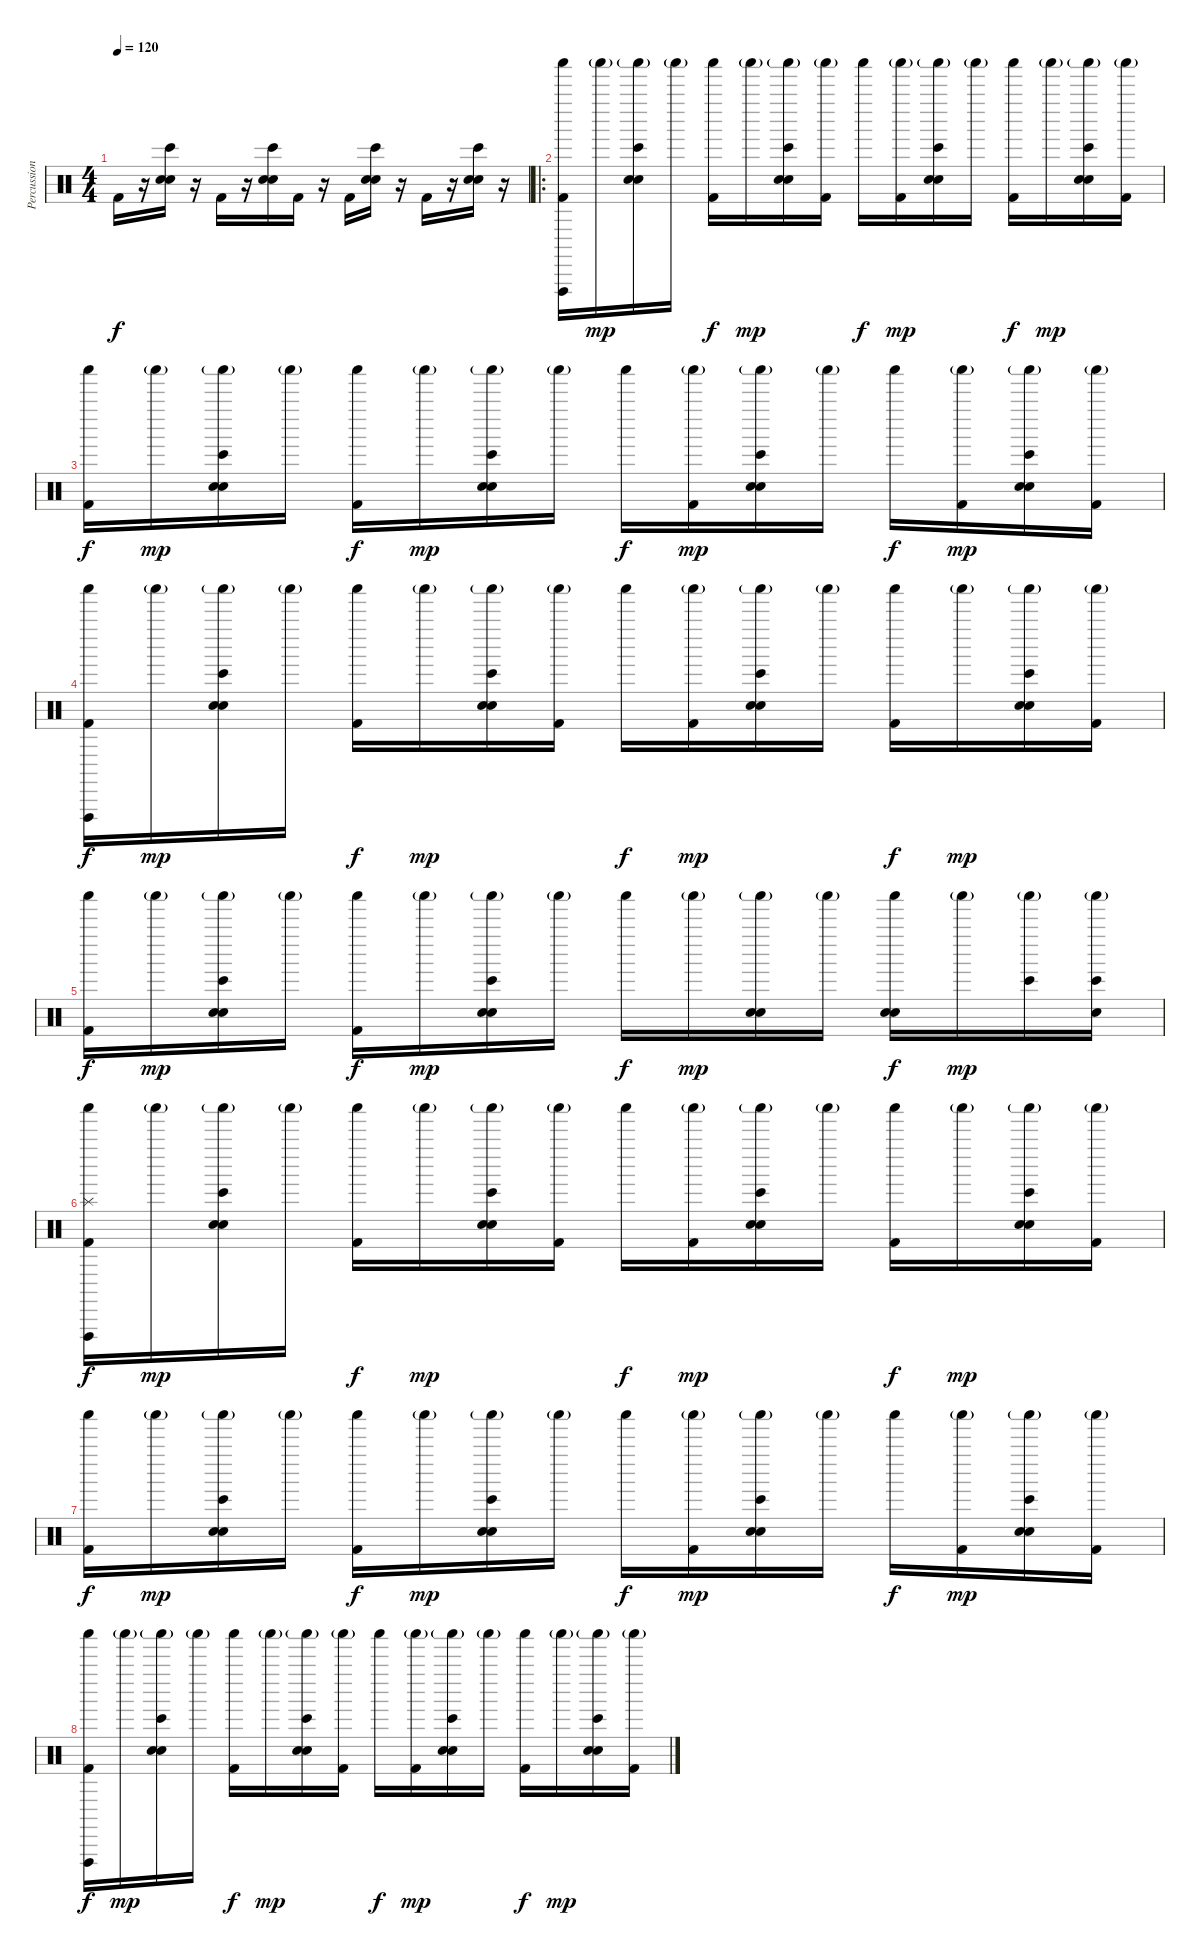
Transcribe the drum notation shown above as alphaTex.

\track ("Percussion" "Percussion") {instrument percussion}
\staff {score}
\articulation defaults
\ts (4 4)
\tempo 120
\clef neutral
\ks c "Kick (hit) 2".16{dy f}
r.16 ("Electric Snare (hit)" "Snare (hit) 2" "Bongo High (hit)").16 r.16 "Kick (hit) 2".16 r.16 ("Electric Snare (hit)" "Snare (hit) 2" "Bongo High (hit)").16 "Kick (hit) 2".16 r.16 "Kick (hit) 2".16 ("Electric Snare (hit)" "Snare (hit) 2" "Bongo High (hit)").16 r.16 "Kick (hit) 2".16 r.16 ("Electric Snare (hit)" "Snare (hit) 2" "Bongo High (hit)").16 r.16 |
\ro
("Vibraslap (hit)" "Shaker (hit)" "Kick (hit) 2").16 "Shaker (hit)"{g}.16{dy mp} ("Shaker (hit)"{g} "Electric Snare (hit)" "Snare (hit) 2" "Bongo High (hit)").16 "Shaker (hit)"{g}.16 ("Shaker (hit)" "Kick (hit) 2").16{dy f} "Shaker (hit)"{g}.16{dy mp} ("Shaker (hit)"{g} "Electric Snare (hit)" "Snare (hit) 2" "Bongo High (hit)").16 ("Shaker (hit)"{g} "Kick (hit) 2").16 "Shaker (hit)".16{dy f} ("Shaker (hit)"{g} "Kick (hit) 2").16{dy mp} ("Shaker (hit)"{g} "Snare (hit) 2" "Bongo High (hit)" "Electric Snare (hit)").16 "Shaker (hit)"{g}.16 ("Shaker (hit)" "Kick (hit) 2").16{dy f} "Shaker (hit)"{g}.16{dy mp} ("Shaker (hit)"{g} "Snare (hit) 2" "Bongo High (hit)" "Electric Snare (hit)").16 ("Shaker (hit)"{g} "Kick (hit) 2").16 |
("Shaker (hit)" "Kick (hit) 2").16{dy f} "Shaker (hit)"{g}.16{dy mp} ("Shaker (hit)"{g} "Electric Snare (hit)" "Snare (hit) 2" "Bongo High (hit)").16 "Shaker (hit)"{g}.16 ("Shaker (hit)" "Kick (hit) 2").16{dy f} "Shaker (hit)"{g}.16{dy mp} ("Shaker (hit)"{g} "Electric Snare (hit)" "Snare (hit) 2" "Bongo High (hit)").16 "Shaker (hit)"{g}.16 "Shaker (hit)".16{dy f} ("Shaker (hit)"{g} "Kick (hit) 2").16{dy mp} ("Shaker (hit)"{g} "Snare (hit) 2" "Bongo High (hit)" "Electric Snare (hit)").16 "Shaker (hit)"{g}.16 "Shaker (hit)".16{dy f} ("Shaker (hit)"{g} "Kick (hit) 2").16{dy mp} ("Shaker (hit)"{g} "Snare (hit) 2" "Bongo High (hit)" "Electric Snare (hit)").16 ("Shaker (hit)"{g} "Kick (hit) 2").16 |
("Vibraslap (hit)" "Shaker (hit)" "Kick (hit) 2").16{dy f} "Shaker (hit)"{g}.16{dy mp} ("Shaker (hit)"{g} "Electric Snare (hit)" "Snare (hit) 2" "Bongo High (hit)").16 "Shaker (hit)"{g}.16 ("Shaker (hit)" "Kick (hit) 2").16{dy f} "Shaker (hit)"{g}.16{dy mp} ("Shaker (hit)"{g} "Electric Snare (hit)" "Snare (hit) 2" "Bongo High (hit)").16 ("Shaker (hit)"{g} "Kick (hit) 2").16 "Shaker (hit)".16{dy f} ("Shaker (hit)"{g} "Kick (hit) 2").16{dy mp} ("Shaker (hit)"{g} "Snare (hit) 2" "Bongo High (hit)" "Electric Snare (hit)").16 "Shaker (hit)"{g}.16 ("Shaker (hit)" "Kick (hit) 2").16{dy f} "Shaker (hit)"{g}.16{dy mp} ("Shaker (hit)"{g} "Snare (hit) 2" "Bongo High (hit)" "Electric Snare (hit)").16 ("Shaker (hit)"{g} "Kick (hit) 2").16 |
("Shaker (hit)" "Kick (hit) 2").16{dy f} "Shaker (hit)"{g}.16{dy mp} ("Shaker (hit)"{g} "Electric Snare (hit)" "Snare (hit) 2" "Bongo High (hit)").16 "Shaker (hit)"{g}.16 ("Shaker (hit)" "Kick (hit) 2").16{dy f} "Shaker (hit)"{g}.16{dy mp} ("Shaker (hit)"{g} "Electric Snare (hit)" "Snare (hit) 2" "Bongo High (hit)").16 "Shaker (hit)"{g}.16 "Shaker (hit)".16{dy f} "Shaker (hit)"{g}.16{dy mp} ("Shaker (hit)"{g} "Electric Snare (hit)" "Snare (hit) 2").16 "Shaker (hit)"{g}.16 ("Shaker (hit)" "Snare (hit) 2" "Electric Snare (hit)").16{dy f} "Shaker (hit)"{g}.16{dy mp} ("Shaker (hit)"{g} "Bongo High (hit)").16 ("Shaker (hit)"{g} "Bongo High (hit)" "Electric Snare (hit)").16 |
("Vibraslap (hit)" "Shaker (hit)" "Kick (hit) 2" "Splash (hit)").16{dy f} "Shaker (hit)"{g}.16{dy mp} ("Shaker (hit)"{g} "Electric Snare (hit)" "Snare (hit) 2" "Bongo High (hit)").16 "Shaker (hit)"{g}.16 ("Shaker (hit)" "Kick (hit) 2").16{dy f} "Shaker (hit)"{g}.16{dy mp} ("Shaker (hit)"{g} "Electric Snare (hit)" "Snare (hit) 2" "Bongo High (hit)").16 ("Shaker (hit)"{g} "Kick (hit) 2").16 "Shaker (hit)".16{dy f} ("Shaker (hit)"{g} "Kick (hit) 2").16{dy mp} ("Shaker (hit)"{g} "Snare (hit) 2" "Bongo High (hit)" "Electric Snare (hit)").16 "Shaker (hit)"{g}.16 ("Shaker (hit)" "Kick (hit) 2").16{dy f} "Shaker (hit)"{g}.16{dy mp} ("Shaker (hit)"{g} "Snare (hit) 2" "Bongo High (hit)" "Electric Snare (hit)").16 ("Shaker (hit)"{g} "Kick (hit) 2").16 |
("Shaker (hit)" "Kick (hit) 2").16{dy f} "Shaker (hit)"{g}.16{dy mp} ("Shaker (hit)"{g} "Electric Snare (hit)" "Snare (hit) 2" "Bongo High (hit)").16 "Shaker (hit)"{g}.16 ("Shaker (hit)" "Kick (hit) 2").16{dy f} "Shaker (hit)"{g}.16{dy mp} ("Shaker (hit)"{g} "Electric Snare (hit)" "Snare (hit) 2" "Bongo High (hit)").16 "Shaker (hit)"{g}.16 "Shaker (hit)".16{dy f} ("Shaker (hit)"{g} "Kick (hit) 2").16{dy mp} ("Shaker (hit)"{g} "Snare (hit) 2" "Bongo High (hit)" "Electric Snare (hit)").16 "Shaker (hit)"{g}.16 "Shaker (hit)".16{dy f} ("Shaker (hit)"{g} "Kick (hit) 2").16{dy mp} ("Shaker (hit)"{g} "Snare (hit) 2" "Bongo High (hit)" "Electric Snare (hit)").16 ("Shaker (hit)"{g} "Kick (hit) 2").16 |
("Vibraslap (hit)" "Shaker (hit)" "Kick (hit) 2").16{dy f} "Shaker (hit)"{g}.16{dy mp} ("Shaker (hit)"{g} "Electric Snare (hit)" "Snare (hit) 2" "Bongo High (hit)").16 "Shaker (hit)"{g}.16 ("Shaker (hit)" "Kick (hit) 2").16{dy f} "Shaker (hit)"{g}.16{dy mp} ("Shaker (hit)"{g} "Electric Snare (hit)" "Snare (hit) 2" "Bongo High (hit)").16 ("Shaker (hit)"{g} "Kick (hit) 2").16 "Shaker (hit)".16{dy f} ("Shaker (hit)"{g} "Kick (hit) 2").16{dy mp} ("Shaker (hit)"{g} "Snare (hit) 2" "Bongo High (hit)" "Electric Snare (hit)").16 "Shaker (hit)"{g}.16 ("Shaker (hit)" "Kick (hit) 2").16{dy f} "Shaker (hit)"{g}.16{dy mp} ("Shaker (hit)"{g} "Snare (hit) 2" "Bongo High (hit)" "Electric Snare (hit)").16 ("Shaker (hit)"{g} "Kick (hit) 2").16
